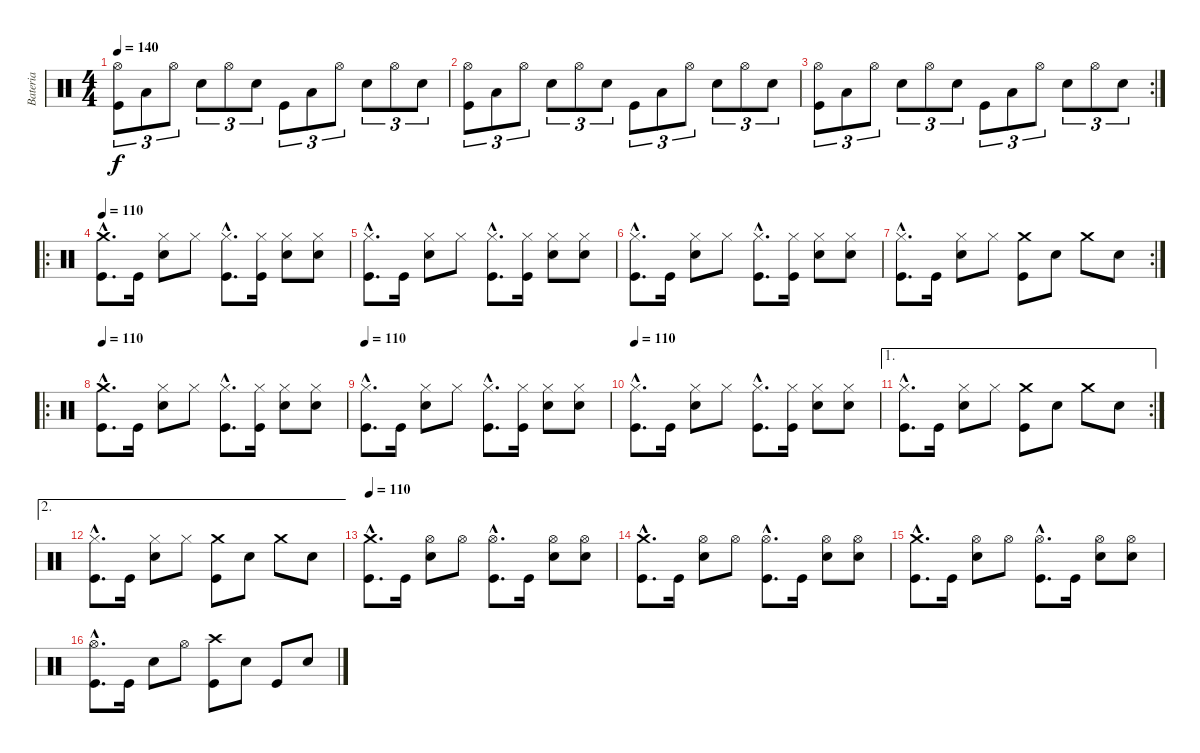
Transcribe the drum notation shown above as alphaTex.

\track ("Bateria" "Bateria") {instrument percussion}
\staff {score}
\articulation defaults
\ts (4 4)
\tempo 140
\clef neutral
\ks c
("Hi-Hat (open)" "Kick (hit)").8{tu (3 2) dy f} "Low Tom (hit)".8{tu (3 2)} "Hi-Hat (open)".8{tu (3 2)} "Snare (hit) 2".8{tu (3 2)} "Hi-Hat (open)".8{tu (3 2)} "Snare (hit) 2".8{tu (3 2)} "Kick (hit)".8{tu (3 2)} "Low Tom (hit)".8{tu (3 2)} "Hi-Hat (open)".8{tu (3 2)} "Snare (hit) 2".8{tu (3 2)} "Hi-Hat (open)".8{tu (3 2)} "Snare (hit) 2".8{tu (3 2)} |
("Hi-Hat (open)" "Kick (hit)").8{tu (3 2)} "Low Tom (hit)".8{tu (3 2)} "Hi-Hat (open)".8{tu (3 2)} "Snare (hit) 2".8{tu (3 2)} "Hi-Hat (open)".8{tu (3 2)} "Snare (hit) 2".8{tu (3 2)} "Kick (hit)".8{tu (3 2)} "Low Tom (hit)".8{tu (3 2)} "Hi-Hat (open)".8{tu (3 2)} "Snare (hit) 2".8{tu (3 2)} "Hi-Hat (open)".8{tu (3 2)} "Snare (hit) 2".8{tu (3 2)} |
\rc 2
("Hi-Hat (open)" "Kick (hit)").8{tu (3 2)} "Low Tom (hit)".8{tu (3 2)} "Hi-Hat (open)".8{tu (3 2)} "Snare (hit) 2".8{tu (3 2)} "Hi-Hat (open)".8{tu (3 2)} "Snare (hit) 2".8{tu (3 2)} "Kick (hit)".8{tu (3 2)} "Low Tom (hit)".8{tu (3 2)} "Hi-Hat (open)".8{tu (3 2)} "Snare (hit) 2".8{tu (3 2)} "Hi-Hat (open)".8{tu (3 2)} "Snare (hit) 2".8{tu (3 2)} |
\ro
\tempo 110
("Crash medium (hit)"{hac} "Kick (hit)"{hac}).8{d} "Kick (hit)".16 ("Hi-Hat (closed)" "Snare (hit) 2").8 "Hi-Hat (closed)".8 ("Hi-Hat (closed)"{hac} "Kick (hit)"{hac}).8{d} ("Hi-Hat (closed)" "Kick (hit)").16 ("Hi-Hat (closed)" "Snare (hit) 2").8 ("Hi-Hat (closed)" "Snare (hit) 2").8 |
("Hi-Hat (closed)"{hac} "Kick (hit)"{hac}).8{d} "Kick (hit)".16 ("Hi-Hat (closed)" "Snare (hit) 2").8 "Hi-Hat (closed)".8 ("Hi-Hat (closed)"{hac} "Kick (hit)"{hac}).8{d} ("Hi-Hat (closed)" "Kick (hit)").16 ("Hi-Hat (closed)" "Snare (hit) 2").8 ("Hi-Hat (closed)" "Snare (hit) 2").8 |
("Hi-Hat (closed)"{hac} "Kick (hit)"{hac}).8{d} "Kick (hit)".16 ("Hi-Hat (closed)" "Snare (hit) 2").8 "Hi-Hat (closed)".8 ("Hi-Hat (closed)"{hac} "Kick (hit)"{hac}).8{d} ("Hi-Hat (closed)" "Kick (hit)").16 ("Hi-Hat (closed)" "Snare (hit) 2").8 ("Hi-Hat (closed)" "Snare (hit) 2").8 |
\rc 2
("Hi-Hat (closed)"{hac} "Kick (hit)"{hac}).8{d} "Kick (hit)".16 ("Hi-Hat (closed)" "Snare (hit) 2").8 "Hi-Hat (closed)".8 ("Crash medium (hit)" "Kick (hit)").8 "Snare (hit) 2".8 "Crash medium (hit)".8 "Snare (hit) 2".8 |
\ro
\tempo 110
("Crash medium (hit)"{hac} "Kick (hit)"{hac}).8{d} "Kick (hit)".16 ("Hi-Hat (closed)" "Snare (hit) 2").8 "Hi-Hat (closed)".8 ("Hi-Hat (closed)"{hac} "Kick (hit)"{hac}).8{d} ("Hi-Hat (closed)" "Kick (hit)").16 ("Hi-Hat (closed)" "Snare (hit) 2").8 ("Hi-Hat (closed)" "Snare (hit) 2").8 |
\tempo 110
("Hi-Hat (closed)"{hac} "Kick (hit)"{hac}).8{d} "Kick (hit)".16 ("Hi-Hat (closed)" "Snare (hit) 2").8 "Hi-Hat (closed)".8 ("Hi-Hat (closed)"{hac} "Kick (hit)"{hac}).8{d} ("Hi-Hat (closed)" "Kick (hit)").16 ("Hi-Hat (closed)" "Snare (hit) 2").8 ("Hi-Hat (closed)" "Snare (hit) 2").8 |
\tempo 110
("Hi-Hat (closed)"{hac} "Kick (hit)"{hac}).8{d} "Kick (hit)".16 ("Hi-Hat (closed)" "Snare (hit) 2").8 "Hi-Hat (closed)".8 ("Hi-Hat (closed)"{hac} "Kick (hit)"{hac}).8{d} ("Hi-Hat (closed)" "Kick (hit)").16 ("Hi-Hat (closed)" "Snare (hit) 2").8 ("Hi-Hat (closed)" "Snare (hit) 2").8 |
\ae 1
\rc 2
("Hi-Hat (closed)"{hac} "Kick (hit)"{hac}).8{d} "Kick (hit)".16 ("Hi-Hat (closed)" "Snare (hit) 2").8 "Hi-Hat (closed)".8 ("Crash medium (hit)" "Kick (hit)").8 "Snare (hit) 2".8 "Crash medium (hit)".8 "Snare (hit) 2".8 |
\ae 2
("Hi-Hat (closed)"{hac} "Kick (hit)"{hac}).8{d} "Kick (hit)".16 ("Hi-Hat (closed)" "Snare (hit) 2").8 "Hi-Hat (closed)".8 ("Crash medium (hit)" "Kick (hit)").8 "Snare (hit) 2".8 "Crash medium (hit)".8 "Snare (hit) 2".8 |
\tempo 110
("Crash medium (hit)"{hac} "Kick (hit)"{hac}).8{d} "Kick (hit)".16 ("Hi-Hat (open)" "Snare (hit) 2").8 "Hi-Hat (open)".8 ("Hi-Hat (open)"{hac} "Kick (hit)"{hac}).8{d} "Kick (hit)".16 ("Hi-Hat (open)" "Snare (hit) 2").8 ("Hi-Hat (open)" "Snare (hit) 2").8 |
("Crash medium (hit)"{hac} "Kick (hit)"{hac}).8{d} "Kick (hit)".16 ("Hi-Hat (open)" "Snare (hit) 2").8 "Hi-Hat (open)".8 ("Hi-Hat (open)"{hac} "Kick (hit)"{hac}).8{d} "Kick (hit)".16 ("Hi-Hat (open)" "Snare (hit) 2").8 ("Hi-Hat (open)" "Snare (hit) 2").8 |
("Crash medium (hit)"{hac} "Kick (hit)"{hac}).8{d} "Kick (hit)".16 ("Hi-Hat (open)" "Snare (hit) 2").8 "Hi-Hat (open)".8 ("Hi-Hat (open)"{hac} "Kick (hit)"{hac}).8{d} "Kick (hit)".16 ("Hi-Hat (open)" "Snare (hit) 2").8 ("Hi-Hat (open)" "Snare (hit) 2").8 |
("Hi-Hat (open)"{hac} "Kick (hit)"{hac}).8{d} "Kick (hit)".16 "Snare (hit) 2".8 "Hi-Hat (open)".8 ("Crash high (hit)" "Kick (hit)").8 "Snare (hit) 2".8 "Kick (hit)".8 "Snare (hit) 2".8
